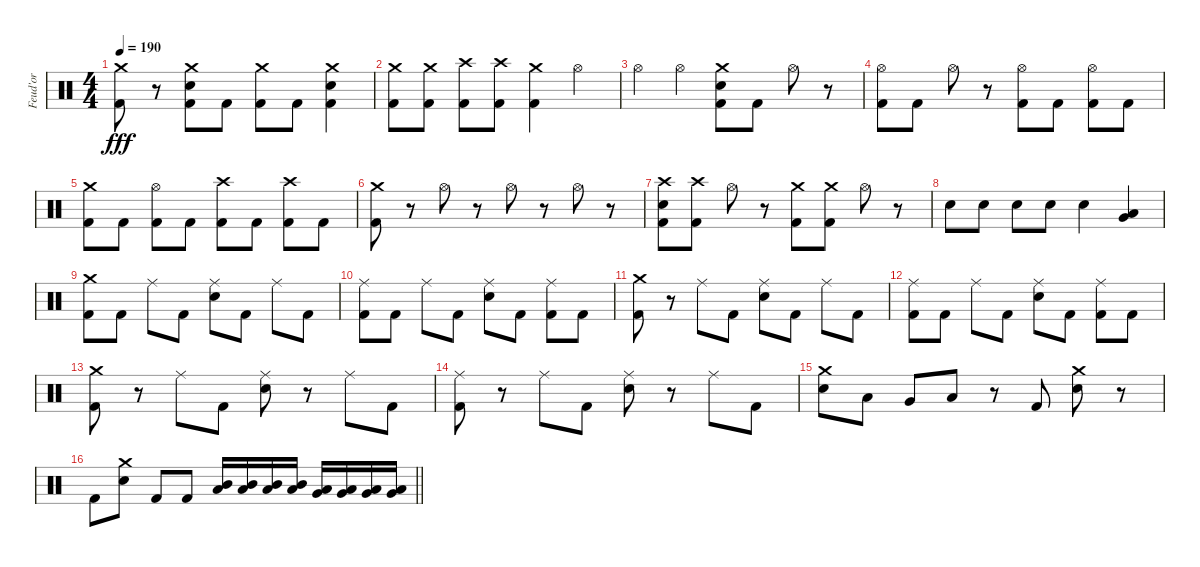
\track ("Feud'or" "Feud'or") {instrument percussion}
\staff {score}
\articulation defaults
\ts (4 4)
\tempo 190
\clef neutral
\ks c
("Crash medium (hit)" "Kick (hit) 2").8{dy fff} r.8 ("Crash medium (hit)" "Snare (hit) 2" "Kick (hit) 2").8 "Kick (hit) 2".8 ("Crash medium (hit)" "Kick (hit) 2").8 "Kick (hit) 2".8 ("Crash medium (hit)" "Snare (hit) 2" "Kick (hit) 2").4 |
("Crash medium (hit)" "Kick (hit) 2").8 ("Crash medium (hit)" "Kick (hit) 2").8 ("Crash high (hit)" "Kick (hit) 2").8 ("Crash high (hit)" "Kick (hit) 2").8 ("Crash medium (hit)" "Kick (hit) 2").4 "Hi-Hat (open)".4 |
"Hi-Hat (open)".4 "Hi-Hat (open)".4 ("Crash medium (hit)" "Snare (hit) 2" "Kick (hit) 2").8 "Kick (hit) 2".8 "Hi-Hat (open)".8 r.8 |
("Hi-Hat (open)" "Kick (hit) 2").8 "Kick (hit) 2".8 "Hi-Hat (open)".8 r.8 ("Hi-Hat (open)" "Kick (hit) 2").8 "Kick (hit) 2".8 ("Hi-Hat (open)" "Kick (hit) 2").8 "Kick (hit) 2".8 |
("Crash medium (hit)" "Kick (hit) 2").8 "Kick (hit) 2".8 ("Hi-Hat (open)" "Kick (hit) 2").8 "Kick (hit) 2".8 ("Crash high (hit)" "Kick (hit) 2").8 "Kick (hit) 2".8 ("Crash high (hit)" "Kick (hit) 2").8 "Kick (hit) 2".8 |
("Crash medium (hit)" "Kick (hit) 2").8 r.8 "Hi-Hat (open)".8 r.8 "Hi-Hat (open)".8 r.8 "Hi-Hat (open)".8 r.8 |
("Crash high (hit)" "Snare (hit) 2" "Kick (hit) 2").8 ("Crash high (hit)" "Kick (hit) 2").8 "Hi-Hat (open)".8 r.8 ("Crash medium (hit)" "Kick (hit) 2").8 ("Crash medium (hit)" "Kick (hit) 2").8 "Hi-Hat (open)".8 r.8 |
"Snare (hit) 2".8 "Snare (hit) 2".8 "Snare (hit) 2".8 "Snare (hit) 2".8 "Snare (hit) 2".4 ("Low Tom (hit)" "Very Low Tom (hit)").4 |
("Crash medium (hit)" "Kick (hit) 2").8 "Kick (hit) 2".8 "Ride (middle)".8 "Kick (hit) 2".8 ("Ride (middle)" "Snare (hit) 2").8 "Kick (hit) 2".8 "Ride (middle)".8 "Kick (hit) 2".8 |
("Ride (middle)" "Kick (hit) 2").8 "Kick (hit) 2".8 "Ride (middle)".8 "Kick (hit) 2".8 ("Ride (middle)" "Snare (hit) 2").8 "Kick (hit) 2".8 ("Ride (middle)" "Kick (hit) 2").8 "Kick (hit) 2".8 |
("Crash medium (hit)" "Kick (hit) 2").8 r.8 "Ride (middle)".8 "Kick (hit) 2".8 ("Ride (middle)" "Snare (hit) 2").8 "Kick (hit) 2".8 "Ride (middle)".8 "Kick (hit) 2".8 |
("Ride (middle)" "Kick (hit) 2").8 "Kick (hit) 2".8 "Ride (middle)".8 "Kick (hit) 2".8 ("Ride (middle)" "Snare (hit) 2").8 "Kick (hit) 2".8 ("Ride (middle)" "Kick (hit) 2").8 "Kick (hit) 2".8 |
("Crash medium (hit)" "Kick (hit) 2").8 r.8 "Ride (middle)".8 "Kick (hit) 2".8 ("Ride (middle)" "Snare (hit) 2").8 r.8 "Ride (middle)".8 "Kick (hit) 2".8 |
("Ride (middle)" "Kick (hit) 2").8 r.8 "Ride (middle)".8 "Kick (hit) 2".8 ("Ride (middle)" "Snare (hit) 2").8 r.8 "Ride (middle)".8 "Kick (hit) 2".8 |
("Crash medium (hit)" "Snare (hit) 2").8 "Low Tom (hit)".8 "Very Low Tom (hit)".8 "Low Floor Tom (hit)".8 r.8 "Kick (hit) 2".8 ("Crash medium (hit)" "Snare (hit) 2").8 r.8 |
\barLineRight lightlight "Kick (hit) 2".8
("Crash medium (hit)" "Snare (hit) 2").8 "Kick (hit) 2".8 "Kick (hit) 2".8 ("Mid Tom (hit)" "Low Tom (hit)").16 ("Mid Tom (hit)" "Low Tom (hit)").16 ("Mid Tom (hit)" "Low Tom (hit)").16 ("Mid Tom (hit)" "Low Tom (hit)").16 ("Low Tom (hit)" "Very Low Tom (hit)").16 ("Low Tom (hit)" "Very Low Tom (hit)").16 ("Low Tom (hit)" "Very Low Tom (hit)").16 ("Low Tom (hit)" "Very Low Tom (hit)").16
